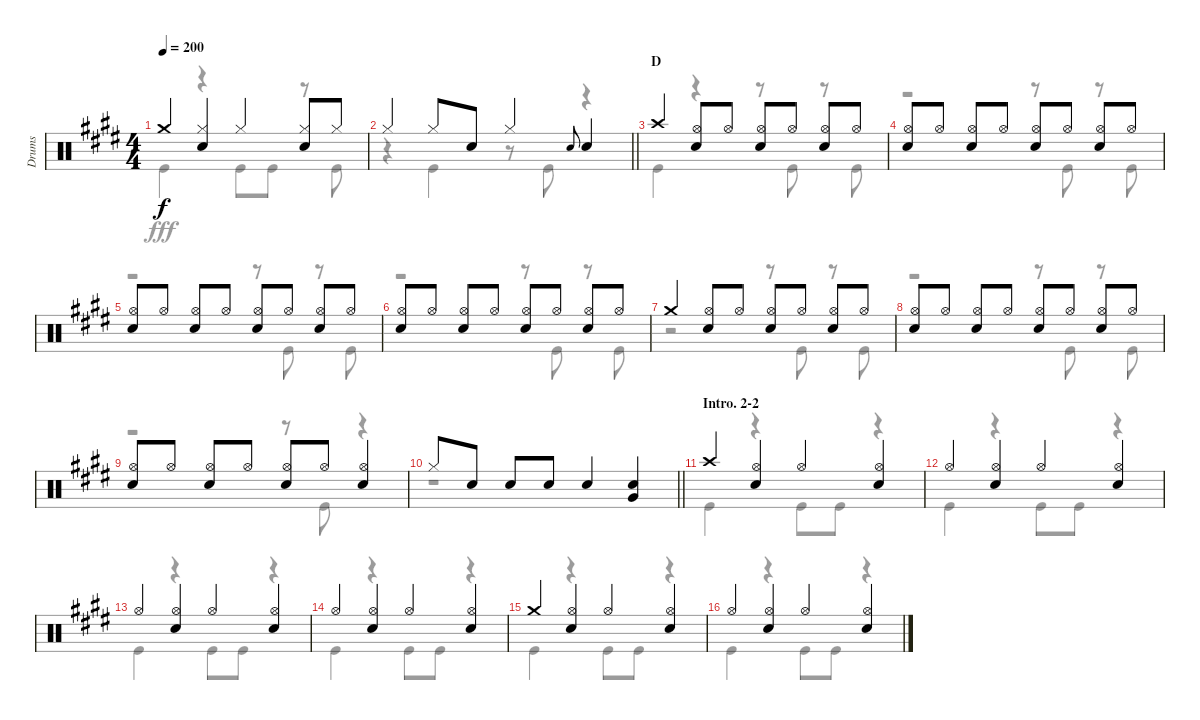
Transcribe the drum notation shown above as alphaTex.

\track ("Drums" "Drums") {instrument percussion}
\staff {score}
\articulation defaults
\voice
\ts (4 4)
\tempo 200
\clef neutral
\ks e "Crash medium (hit)".4{dy f}
("Hi-Hat (closed)" "Snare (hit) 2").4 "Hi-Hat (closed)".4 ("Hi-Hat (closed)" "Snare (hit) 2").8 "Hi-Hat (closed)".8 |
\barLineRight lightlight "Hi-Hat (closed)".4 "Hi-Hat (closed)".8 "Snare (hit) 2".8 "Hi-Hat (closed)".4 "Snare (hit) 2".8{gr onbeat} "Snare (hit) 2".4
|
\section ("" "D")
"Crash high (hit)".4 ("Hi-Hat (open)" "Snare (hit) 2").8 "Hi-Hat (open)".8 ("Hi-Hat (open)" "Snare (hit) 2").8 "Hi-Hat (open)".8 ("Hi-Hat (open)" "Snare (hit) 2").8 "Hi-Hat (open)".8 |
("Hi-Hat (open)" "Snare (hit) 2").8 "Hi-Hat (open)".8 ("Hi-Hat (open)" "Snare (hit) 2").8 "Hi-Hat (open)".8 ("Hi-Hat (open)" "Snare (hit) 2").8 "Hi-Hat (open)".8 ("Hi-Hat (open)" "Snare (hit) 2").8 "Hi-Hat (open)".8 |
("Hi-Hat (open)" "Snare (hit) 2").8 "Hi-Hat (open)".8 ("Hi-Hat (open)" "Snare (hit) 2").8 "Hi-Hat (open)".8 ("Hi-Hat (open)" "Snare (hit) 2").8 "Hi-Hat (open)".8 ("Hi-Hat (open)" "Snare (hit) 2").8 "Hi-Hat (open)".8 |
("Hi-Hat (open)" "Snare (hit) 2").8 "Hi-Hat (open)".8 ("Hi-Hat (open)" "Snare (hit) 2").8 "Hi-Hat (open)".8 ("Hi-Hat (open)" "Snare (hit) 2").8 "Hi-Hat (open)".8 ("Hi-Hat (open)" "Snare (hit) 2").8 "Hi-Hat (open)".8 |
"Crash medium (hit)".4 ("Hi-Hat (open)" "Snare (hit) 2").8 "Hi-Hat (open)".8 ("Hi-Hat (open)" "Snare (hit) 2").8 "Hi-Hat (open)".8 ("Hi-Hat (open)" "Snare (hit) 2").8 "Hi-Hat (open)".8 |
("Hi-Hat (open)" "Snare (hit) 2").8 "Hi-Hat (open)".8 ("Hi-Hat (open)" "Snare (hit) 2").8 "Hi-Hat (open)".8 ("Hi-Hat (open)" "Snare (hit) 2").8 "Hi-Hat (open)".8 ("Hi-Hat (open)" "Snare (hit) 2").8 "Hi-Hat (open)".8 |
("Hi-Hat (open)" "Snare (hit) 2").8 "Hi-Hat (open)".8 ("Hi-Hat (open)" "Snare (hit) 2").8 "Hi-Hat (open)".8 ("Hi-Hat (open)" "Snare (hit) 2").8 "Hi-Hat (open)".8 ("Hi-Hat (open)" "Snare (hit) 2").4 |
\barLineRight lightlight "Hi-Hat (closed)".8 "Snare (hit) 2".8 "Snare (hit) 2".8 "Snare (hit) 2".8 "Snare (hit) 2".4
("Snare (hit) 2" "Very Low Tom (hit)").4 |
\section ("" "Intro. 2-2")
"Crash high (hit)".4 ("Hi-Hat (open)" "Snare (hit) 2").4 "Hi-Hat (open)".4 ("Hi-Hat (open)" "Snare (hit) 2").4 |
"Hi-Hat (open)".4 ("Hi-Hat (open)" "Snare (hit) 2").4 "Hi-Hat (open)".4 ("Hi-Hat (open)" "Snare (hit) 2").4 |
"Hi-Hat (open)".4 ("Hi-Hat (open)" "Snare (hit) 2").4 "Hi-Hat (open)".4 ("Hi-Hat (open)" "Snare (hit) 2").4 |
"Hi-Hat (open)".4 ("Hi-Hat (open)" "Snare (hit) 2").4 "Hi-Hat (open)".4 ("Hi-Hat (open)" "Snare (hit) 2").4 |
"Crash medium (hit)".4 ("Hi-Hat (open)" "Snare (hit) 2").4 "Hi-Hat (open)".4 ("Hi-Hat (open)" "Snare (hit) 2").4 |
"Hi-Hat (open)".4 ("Hi-Hat (open)" "Snare (hit) 2").4 "Hi-Hat (open)".4 ("Hi-Hat (open)" "Snare (hit) 2").4
\voice
\clef neutral
\ottava regular
\simile none
\ks e "Kick (hit)".4{dy fff}
r.4 "Kick (hit)".8 "Kick (hit)".8 r.8 "Kick (hit)".8 |
\barLineRight lightlight
r.4 "Kick (hit)".4 r.8 "Kick (hit)".8 r.4 |
"Kick (hit)".4 r.4 r.8 "Kick (hit)".8 r.8 "Kick (hit)".8 |
r.2 r.8 "Kick (hit)".8 r.8 "Kick (hit)".8 |
r.2 r.8 "Kick (hit)".8 r.8 "Kick (hit)".8 |
r.2 r.8 "Kick (hit)".8 r.8 "Kick (hit)".8 |
r.2 r.8 "Kick (hit)".8 r.8 "Kick (hit)".8 |
r.2 r.8 "Kick (hit)".8 r.8 "Kick (hit)".8 |
r.2 r.8 "Kick (hit)".8 r.4 |
\barLineRight lightlight
r.1 |
"Kick (hit)".4 r.4 "Kick (hit)".8 "Kick (hit)".8 r.4 |
"Kick (hit)".4 r.4 "Kick (hit)".8 "Kick (hit)".8 r.4 |
"Kick (hit)".4 r.4 "Kick (hit)".8 "Kick (hit)".8 r.4 |
"Kick (hit)".4 r.4 "Kick (hit)".8 "Kick (hit)".8 r.4 |
"Kick (hit)".4 r.4 "Kick (hit)".8 "Kick (hit)".8 r.4 |
"Kick (hit)".4 r.4 "Kick (hit)".8 "Kick (hit)".8 r.4
